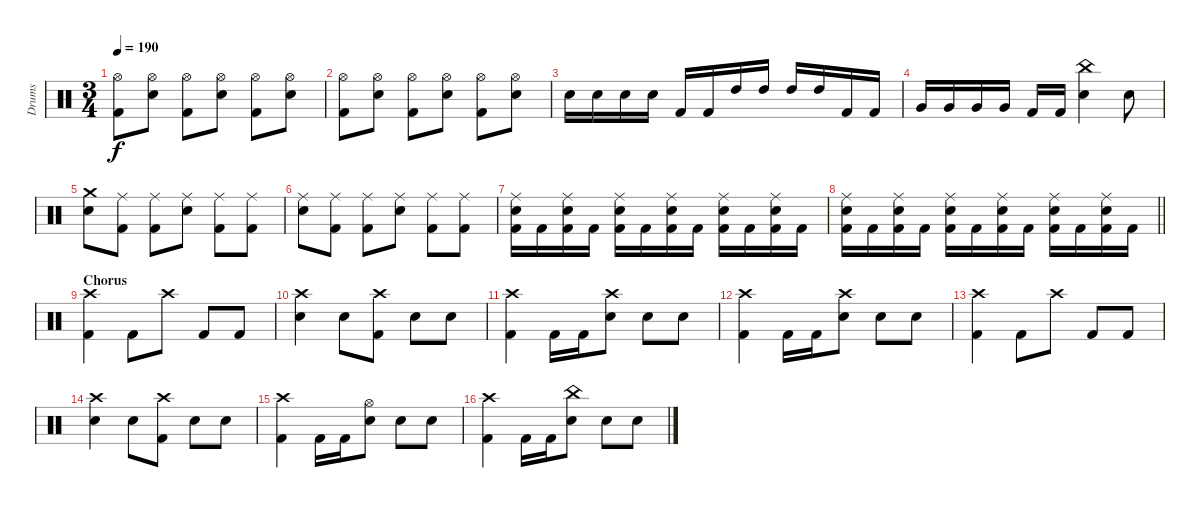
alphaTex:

\track ("Drums" "Drums") {instrument percussion}
\staff {score}
\articulation defaults
\ts (3 4)
\tempo 190
\clef neutral
\ks c
("Hi-Hat (open)" "Kick (hit) 2").8{dy f} ("Hi-Hat (open)" "Snare (hit) 2").8 ("Hi-Hat (open)" "Kick (hit) 2").8 ("Hi-Hat (open)" "Snare (hit) 2").8 ("Hi-Hat (open)" "Kick (hit) 2").8 ("Hi-Hat (open)" "Snare (hit) 2").8 |
("Hi-Hat (open)" "Kick (hit) 2").8 ("Hi-Hat (open)" "Snare (hit) 2").8 ("Hi-Hat (open)" "Kick (hit) 2").8 ("Hi-Hat (open)" "Snare (hit) 2").8 ("Hi-Hat (open)" "Kick (hit) 2").8 ("Hi-Hat (open)" "Snare (hit) 2").8 |
"Snare (hit) 2".16 "Snare (hit) 2".16 "Snare (hit) 2".16 "Snare (hit) 2".16 "Kick (hit) 2".16 "Kick (hit) 2".16 "High Tom (hit)".16 "High Tom (hit)".16 "High Tom (hit)".16 "High Tom (hit)".16 "Kick (hit) 2".16 "Kick (hit) 2".16 |
"Very Low Tom (hit)".16 "Very Low Tom (hit)".16 "Very Low Tom (hit)".16 "Very Low Tom (hit)".16 "Kick (hit) 2".16 "Kick (hit) 2".16 ("China (hit)" "Snare (hit) 2").4 "Snare (hit) 2".8 |
("Crash medium (hit)" "Snare (hit) 2").8 ("Ride (middle)" "Kick (hit) 2").8 ("Ride (middle)" "Kick (hit) 2").8 ("Ride (middle)" "Snare (hit) 2").8 ("Ride (middle)" "Kick (hit) 2").8 ("Ride (middle)" "Kick (hit) 2").8 |
("Ride (middle)" "Snare (hit) 2").8 ("Ride (middle)" "Kick (hit) 2").8 ("Ride (middle)" "Kick (hit) 2").8 ("Ride (middle)" "Snare (hit) 2").8 ("Ride (middle)" "Kick (hit) 2").8 ("Ride (middle)" "Kick (hit) 2").8 |
("Ride (middle)" "Snare (hit) 2" "Kick (hit) 2").16 "Kick (hit) 2".16 ("Ride (middle)" "Snare (hit) 2" "Kick (hit) 2").16 "Kick (hit) 2".16 ("Ride (middle)" "Snare (hit) 2" "Kick (hit) 2").16 "Kick (hit) 2".16 ("Ride (middle)" "Snare (hit) 2" "Kick (hit) 2").16 "Kick (hit) 2".16 ("Ride (middle)" "Snare (hit) 2" "Kick (hit) 2").16 "Kick (hit) 2".16 ("Ride (middle)" "Snare (hit) 2" "Kick (hit) 2").16 "Kick (hit) 2".16 |
\barLineRight lightlight
("Ride (middle)" "Snare (hit) 2" "Kick (hit) 2").16 "Kick (hit) 2".16 ("Ride (middle)" "Snare (hit) 2" "Kick (hit) 2").16 "Kick (hit) 2".16 ("Ride (middle)" "Snare (hit) 2" "Kick (hit) 2").16 "Kick (hit) 2".16 ("Ride (middle)" "Snare (hit) 2" "Kick (hit) 2").16 "Kick (hit) 2".16 ("Ride (middle)" "Snare (hit) 2" "Kick (hit) 2").16 "Kick (hit) 2".16 ("Ride (middle)" "Snare (hit) 2" "Kick (hit) 2").16 "Kick (hit) 2".16 |
\section ("" "Chorus")
("Crash high (hit)" "Kick (hit) 2").4 "Kick (hit) 2".8 "Crash high (hit)".8 "Kick (hit) 2".8 "Kick (hit) 2".8 |
("Crash high (hit)" "Snare (hit) 2").4 "Snare (hit) 2".8 ("Crash high (hit)" "Kick (hit) 2").8 "Snare (hit) 2".8 "Snare (hit) 2".8 |
("Crash high (hit)" "Kick (hit) 2").4 "Kick (hit) 2".16 "Kick (hit) 2".16 ("Crash high (hit)" "Snare (hit) 2").8 "Snare (hit) 2".8 "Snare (hit) 2".8 |
("Crash high (hit)" "Kick (hit) 2").4 "Kick (hit) 2".16 "Kick (hit) 2".16 ("Crash high (hit)" "Snare (hit) 2").8 "Snare (hit) 2".8 "Snare (hit) 2".8 |
("Crash high (hit)" "Kick (hit) 2").4 "Kick (hit) 2".8 "Crash high (hit)".8 "Kick (hit) 2".8 "Kick (hit) 2".8 |
("Crash high (hit)" "Snare (hit) 2").4 "Snare (hit) 2".8 ("Crash high (hit)" "Kick (hit) 2").8 "Snare (hit) 2".8 "Snare (hit) 2".8 |
("Crash high (hit)" "Kick (hit) 2").4 "Kick (hit) 2".16 "Kick (hit) 2".16 ("Hi-Hat (open)" "Snare (hit) 2").8 "Snare (hit) 2".8 "Snare (hit) 2".8 |
("Crash high (hit)" "Kick (hit) 2").4 "Kick (hit) 2".16 "Kick (hit) 2".16 ("China (hit)" "Snare (hit) 2").8 "Snare (hit) 2".8 "Snare (hit) 2".8
